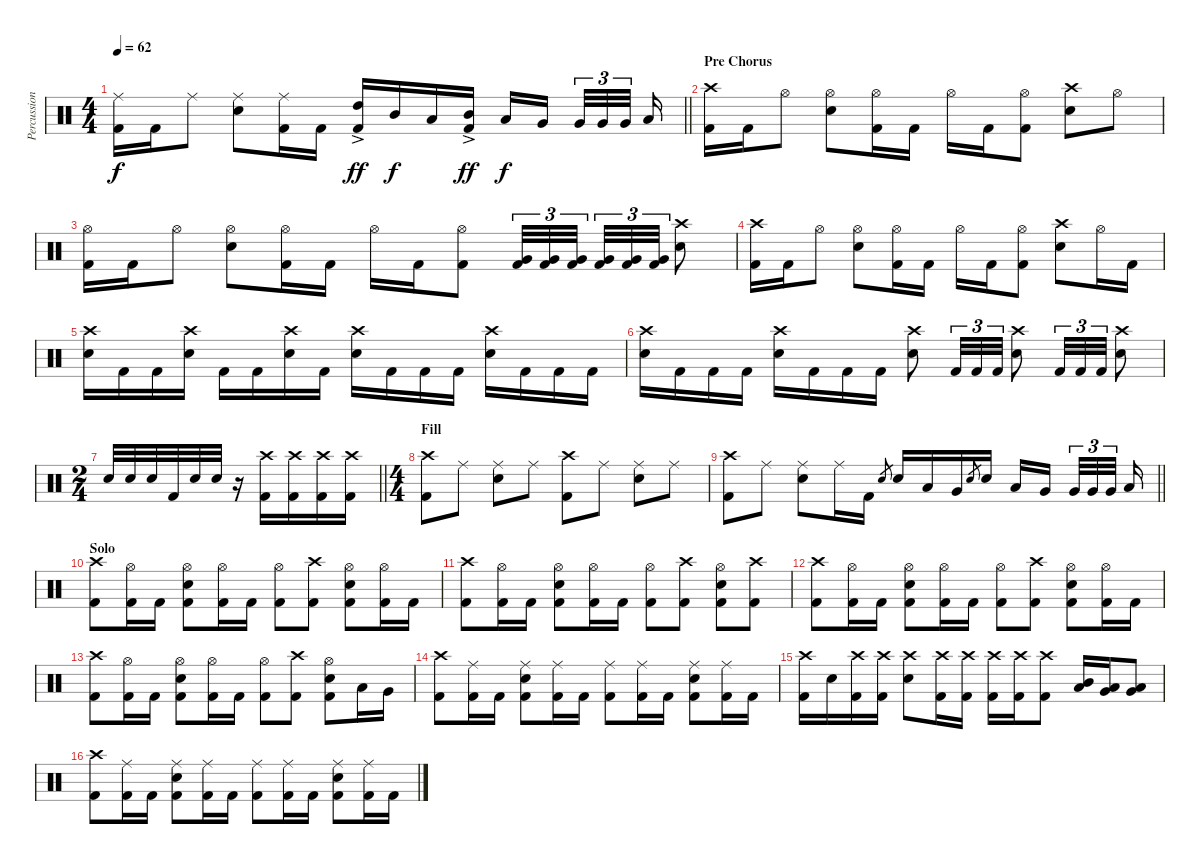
\track ("Percussion" "Percussion") {instrument percussion}
\staff {score}
\articulation defaults
\ts (4 4)
\tempo 62
\clef neutral
\barLineRight lightlight
\ks c
("Ride (middle)" "Kick (hit) 2").16{dy f} "Kick (hit) 2".16 "Ride (middle)".8 ("Ride (middle)" "Snare (hit) 2").8 ("Ride (middle)" "Kick (hit) 2").16 "Kick (hit) 2".16 ("High Tom (hit)"{ac} "Kick (hit) 2").16{dy ff} "Mid Tom (hit)".16{dy f} "Low Tom (hit)".16 ("Mid Tom (hit)"{ac} "Kick (hit) 2").16{dy ff} "Low Tom (hit)".16{dy f} "Very Low Tom (hit)".16 "Very Low Tom (hit)".32{tu (3 2)} "Very Low Tom (hit)".32{tu (3 2)} "Very Low Tom (hit)".32{tu (3 2)} "Low Floor Tom (hit)".16 |
\section ("" "Pre Chorus")
("Crash high (hit)" "Kick (hit) 2").16 "Kick (hit) 2".16 "Hi-Hat (open)".8 ("Hi-Hat (open)" "Snare (hit) 2").8 ("Hi-Hat (open)" "Kick (hit) 2").16 "Kick (hit) 2".16 "Hi-Hat (open)".16 "Kick (hit) 2".16 ("Hi-Hat (open)" "Kick (hit) 2").8 ("Crash high (hit)" "Snare (hit) 2").8 "Hi-Hat (open)".8 |
("Hi-Hat (open)" "Kick (hit) 2").16 "Kick (hit) 2".16 "Hi-Hat (open)".8 ("Hi-Hat (open)" "Snare (hit) 2").8 ("Hi-Hat (open)" "Kick (hit) 2").16 "Kick (hit) 2".16 "Hi-Hat (open)".16 "Kick (hit) 2".16 ("Hi-Hat (open)" "Kick (hit) 2").8 ("Very Low Tom (hit)" "Kick (hit) 2").32{tu (3 2)} ("Very Low Tom (hit)" "Kick (hit) 2").32{tu (3 2)} ("Very Low Tom (hit)" "Kick (hit) 2").32{tu (3 2)} ("Very Low Tom (hit)" "Kick (hit) 2").32{tu (3 2)} ("Very Low Tom (hit)" "Kick (hit) 2").32{tu (3 2)} ("Very Low Tom (hit)" "Kick (hit) 2").32{tu (3 2)} ("Crash high (hit)" "Snare (hit) 2").8 |
("Crash high (hit)" "Kick (hit) 2").16 "Kick (hit) 2".16 "Hi-Hat (open)".8 ("Hi-Hat (open)" "Snare (hit) 2").8 ("Hi-Hat (open)" "Kick (hit) 2").16 "Kick (hit) 2".16 "Hi-Hat (open)".16 "Kick (hit) 2".16 ("Hi-Hat (open)" "Kick (hit) 2").8 ("Crash high (hit)" "Snare (hit) 2").8 "Hi-Hat (open)".16 "Kick (hit) 2".16 |
("Crash high (hit)" "Snare (hit) 2").16 "Kick (hit) 2".16 "Kick (hit) 2".16 ("Crash high (hit)" "Snare (hit) 2").16 "Kick (hit) 2".16 "Kick (hit) 2".16 ("Crash high (hit)" "Snare (hit) 2").16 "Kick (hit) 2".16 ("Crash high (hit)" "Snare (hit) 2").16 "Kick (hit) 2".16 "Kick (hit) 2".16 "Kick (hit) 2".16 ("Crash high (hit)" "Snare (hit) 2").16 "Kick (hit) 2".16 "Kick (hit) 2".16 "Kick (hit) 2".16 |
("Crash high (hit)" "Snare (hit) 2").16 "Kick (hit) 2".16 "Kick (hit) 2".16 "Kick (hit) 2".16 ("Crash high (hit)" "Snare (hit) 2").16 "Kick (hit) 2".16 "Kick (hit) 2".16 "Kick (hit) 2".16 ("Crash high (hit)" "Snare (hit) 2").8 "Kick (hit) 2".32{tu (3 2)} "Kick (hit) 2".32{tu (3 2)} "Kick (hit) 2".32{tu (3 2)} ("Crash high (hit)" "Snare (hit) 2").8 "Kick (hit) 2".32{tu (3 2)} "Kick (hit) 2".32{tu (3 2)} "Kick (hit) 2".32{tu (3 2)} ("Crash high (hit)" "Snare (hit) 2").8 |
\ts (2 4)
\barLineRight lightlight "Snare (hit) 2".32 "Snare (hit) 2".32 "Snare (hit) 2".32 "Kick (hit) 2".32 "Snare (hit) 2".32 "Snare (hit) 2".32
r.16 ("Crash high (hit)" "Kick (hit) 2").16 ("Crash high (hit)" "Kick (hit) 2").16 ("Crash high (hit)" "Kick (hit) 2").16 ("Crash high (hit)" "Kick (hit) 2").16 |
\ts (4 4)
\section ("" "Fill")
("Crash high (hit)" "Kick (hit) 2").8 "Ride (middle)".8 ("Ride (middle)" "Snare (hit) 2").8 "Ride (middle)".8 ("Crash high (hit)" "Kick (hit) 2").8 "Ride (middle)".8 ("Ride (middle)" "Snare (hit) 2").8 "Ride (middle)".8 |
\barLineRight lightlight
("Crash high (hit)" "Kick (hit) 2").8 "Ride (middle)".8 ("Ride (middle)" "Snare (hit) 2").8 "Ride (middle)".16 "Kick (hit) 2".16 "Snare (hit) 2".8{gr} "Snare (hit) 2".16 "Low Tom (hit)".16 "Very Low Tom (hit)".16 "Snare (hit) 2".8{gr} "Snare (hit) 2".16 "Low Tom (hit)".16 "Very Low Tom (hit)".16 "Very Low Tom (hit)".32{tu (3 2)} "Very Low Tom (hit)".32{tu (3 2)} "Very Low Tom (hit)".32{tu (3 2)} "Low Floor Tom (hit)".16 |
\section ("" "Solo")
("Crash high (hit)" "Kick (hit) 2").8 ("Hi-Hat (open)" "Kick (hit) 2").16 "Kick (hit) 2".16 ("Hi-Hat (open)" "Snare (hit) 2" "Kick (hit) 2").8 ("Hi-Hat (open)" "Kick (hit) 2").16 "Kick (hit) 2".16 ("Hi-Hat (open)" "Kick (hit) 2").8 ("Crash high (hit)" "Kick (hit) 2").8 ("Hi-Hat (open)" "Snare (hit) 2" "Kick (hit) 2").8 ("Hi-Hat (open)" "Kick (hit) 2").16 "Kick (hit) 2".16 |
("Crash high (hit)" "Kick (hit) 2").8 ("Hi-Hat (open)" "Kick (hit) 2").16 "Kick (hit) 2".16 ("Hi-Hat (open)" "Snare (hit) 2" "Kick (hit) 2").8 ("Hi-Hat (open)" "Kick (hit) 2").16 "Kick (hit) 2".16 ("Hi-Hat (open)" "Kick (hit) 2").8 ("Crash high (hit)" "Kick (hit) 2").8 ("Hi-Hat (open)" "Snare (hit) 2" "Kick (hit) 2").8 ("Crash high (hit)" "Kick (hit) 2").8 |
("Crash high (hit)" "Kick (hit) 2").8 ("Hi-Hat (open)" "Kick (hit) 2").16 "Kick (hit) 2".16 ("Hi-Hat (open)" "Snare (hit) 2" "Kick (hit) 2").8 ("Hi-Hat (open)" "Kick (hit) 2").16 "Kick (hit) 2".16 ("Hi-Hat (open)" "Kick (hit) 2").8 ("Crash high (hit)" "Kick (hit) 2").8 ("Hi-Hat (open)" "Snare (hit) 2" "Kick (hit) 2").8 ("Hi-Hat (open)" "Kick (hit) 2").16 "Kick (hit) 2".16 |
("Crash high (hit)" "Kick (hit) 2").8 ("Hi-Hat (open)" "Kick (hit) 2").16 "Kick (hit) 2".16 ("Hi-Hat (open)" "Snare (hit) 2" "Kick (hit) 2").8 ("Hi-Hat (open)" "Kick (hit) 2").16 "Kick (hit) 2".16 ("Hi-Hat (open)" "Kick (hit) 2").8 ("Crash high (hit)" "Kick (hit) 2").8 ("Hi-Hat (open)" "Snare (hit) 2" "Kick (hit) 2").8 "Low Tom (hit)".16 "Very Low Tom (hit)".16 |
("Crash high (hit)" "Kick (hit) 2").8 ("Ride (middle)" "Kick (hit) 2").16 "Kick (hit) 2".16 ("Ride (middle)" "Snare (hit) 2" "Kick (hit) 2").8 ("Ride (middle)" "Kick (hit) 2").16 "Kick (hit) 2".16 ("Ride (middle)" "Kick (hit) 2").8 ("Ride (middle)" "Kick (hit) 2").16 "Kick (hit) 2".16 ("Ride (middle)" "Snare (hit) 2" "Kick (hit) 2").8 ("Ride (middle)" "Kick (hit) 2").16 "Kick (hit) 2".16 |
("Crash high (hit)" "Kick (hit) 2").16 "Snare (hit) 2".16 ("Crash high (hit)" "Kick (hit) 2").16 ("Crash high (hit)" "Kick (hit) 2").16 ("Crash high (hit)" "Snare (hit) 2").8 ("Crash high (hit)" "Kick (hit) 2").16 ("Crash high (hit)" "Kick (hit) 2").16 ("Crash high (hit)" "Kick (hit) 2").16 ("Crash high (hit)" "Kick (hit) 2").16 ("Crash high (hit)" "Kick (hit) 2").8 ("Mid Tom (hit)" "Low Tom (hit)").16 ("Low Tom (hit)" "Very Low Tom (hit)").16 ("Very Low Tom (hit)" "Low Floor Tom (hit)").8 |
("Crash high (hit)" "Kick (hit) 2").8 ("Ride (middle)" "Kick (hit) 2").16 "Kick (hit) 2".16 ("Ride (middle)" "Snare (hit) 2" "Kick (hit) 2").8 ("Ride (middle)" "Kick (hit) 2").16 "Kick (hit) 2".16 ("Ride (middle)" "Kick (hit) 2").8 ("Ride (middle)" "Kick (hit) 2").16 "Kick (hit) 2".16 ("Ride (middle)" "Snare (hit) 2" "Kick (hit) 2").8 ("Ride (middle)" "Kick (hit) 2").16 "Kick (hit) 2".16
